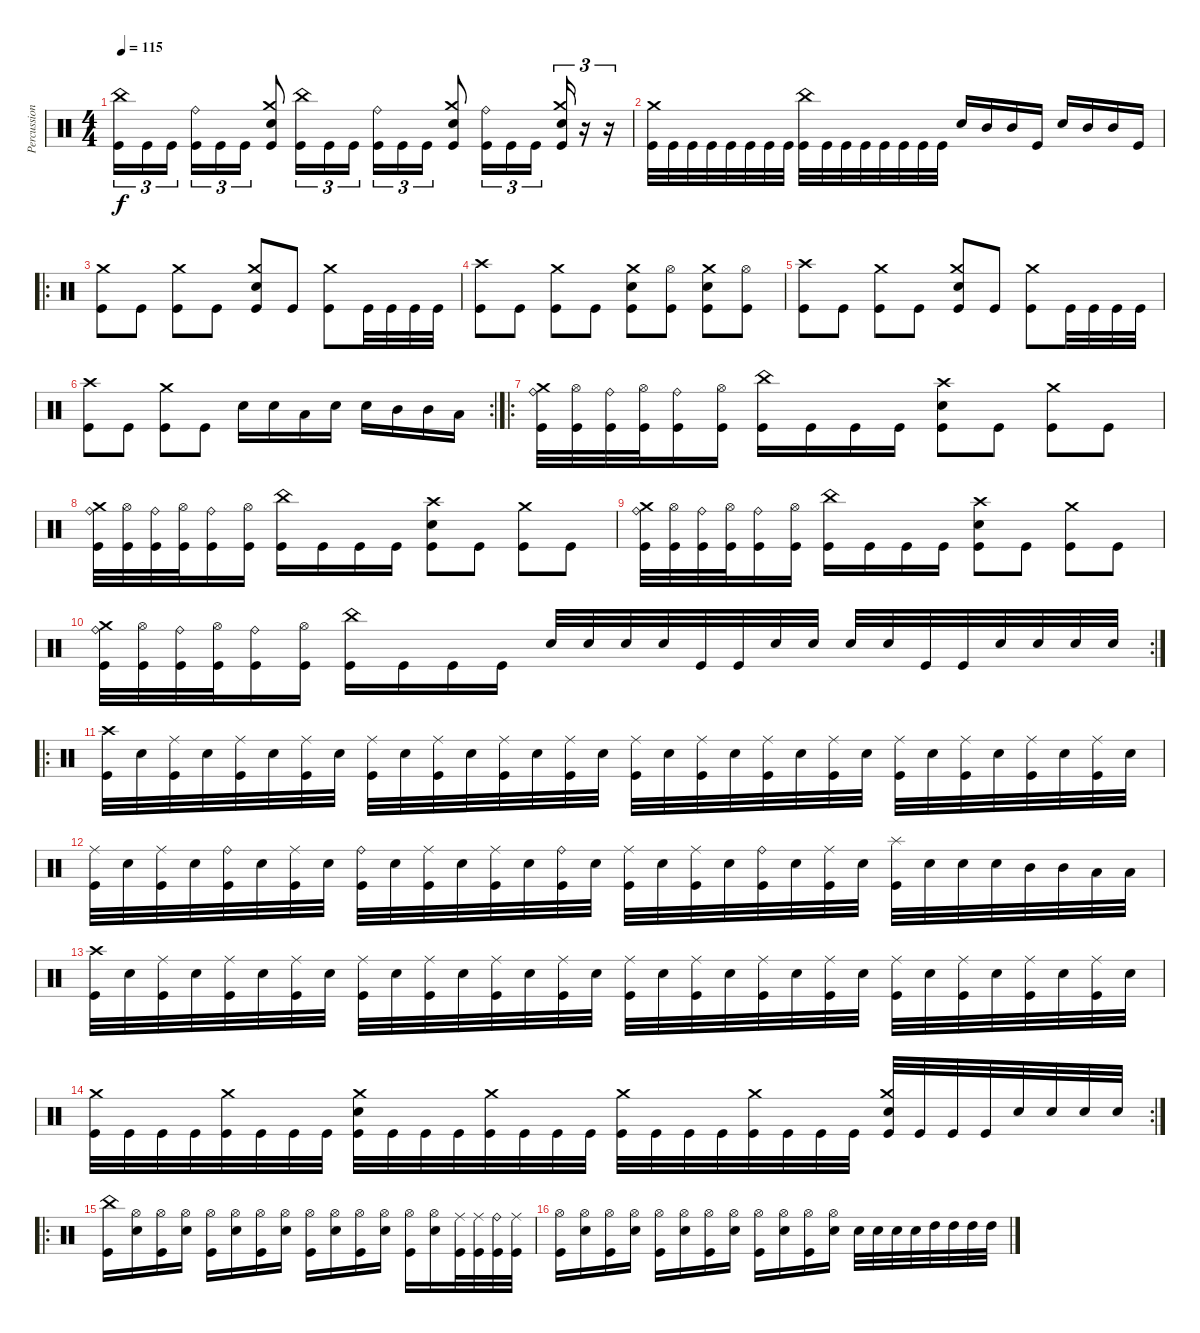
\track ("Percussion" "Percussion") {instrument percussion}
\staff {score}
\articulation defaults
\ts (4 4)
\tempo 115
\clef neutral
\ks c
("China (hit)" "Kick (hit)").16{tu (3 2) dy f} "Kick (hit)".16{tu (3 2)} "Kick (hit)".16{tu (3 2) beam splitsecondary} ("Ride (bell)" "Kick (hit)").16{tu (3 2)} "Kick (hit)".16{tu (3 2)} "Kick (hit)".16{tu (3 2)} ("Crash medium (hit)" "Electric Snare (hit)" "Kick (hit)").8 ("China (hit)" "Kick (hit)").16{tu (3 2)} "Kick (hit)".16{tu (3 2)} "Kick (hit)".16{tu (3 2)} ("Ride (bell)" "Kick (hit)").16{tu (3 2)} "Kick (hit)".16{tu (3 2)} "Kick (hit)".16{tu (3 2)} ("Crash medium (hit)" "Electric Snare (hit)" "Kick (hit)").8 ("Ride (bell)" "Kick (hit)").16{tu (3 2)} "Kick (hit)".16{tu (3 2)} "Kick (hit)".16{tu (3 2) beam splitsecondary} ("Crash medium (hit)" "Electric Snare (hit)" "Kick (hit)").16{tu (3 2)} r.16{tu (3 2)} r.16{tu (3 2)} |
("Crash medium (hit)" "Kick (hit)").32 "Kick (hit)".32 "Kick (hit)".32 "Kick (hit)".32 "Kick (hit)".32 "Kick (hit)".32 "Kick (hit)".32 "Kick (hit)".32 ("China (hit)" "Kick (hit)").32 "Kick (hit)".32 "Kick (hit)".32 "Kick (hit)".32 "Kick (hit)".32 "Kick (hit)".32 "Kick (hit)".32 "Kick (hit)".32 "Electric Snare (hit)".16 "Mid Tom (hit)".16 "Mid Tom (hit)".16 "Kick (hit)".16 "Electric Snare (hit)".16 "Mid Tom (hit)".16 "Mid Tom (hit)".16 "Kick (hit)".16 |
\ro
("Crash medium (hit)" "Kick (hit)").8 "Kick (hit)".8 ("Crash medium (hit)" "Kick (hit)").8 "Kick (hit)".8 ("Crash medium (hit)" "Electric Snare (hit)" "Kick (hit)").8 "Kick (hit)".8 ("Crash medium (hit)" "Kick (hit)").8 "Kick (hit)".32 "Kick (hit)".32 "Kick (hit)".32 "Kick (hit)".32 |
("Crash high (hit)" "Kick (hit)").8 "Kick (hit)".8 ("Crash medium (hit)" "Kick (hit)").8 "Kick (hit)".8 ("Crash medium (hit)" "Electric Snare (hit)" "Kick (hit)").8 ("Hi-Hat (open)" "Kick (hit)").8 ("Crash medium (hit)" "Electric Snare (hit)" "Kick (hit)").8 ("Hi-Hat (open)" "Kick (hit)").8 |
("Crash high (hit)" "Kick (hit)").8 "Kick (hit)".8 ("Crash medium (hit)" "Kick (hit)").8 "Kick (hit)".8 ("Crash medium (hit)" "Electric Snare (hit)" "Kick (hit)").8 "Kick (hit)".8 ("Crash medium (hit)" "Kick (hit)").8 "Kick (hit)".32 "Kick (hit)".32 "Kick (hit)".32 "Kick (hit)".32 |
\rc 2
("Crash high (hit)" "Kick (hit)").8 "Kick (hit)".8 ("Crash medium (hit)" "Kick (hit)").8 "Kick (hit)".8 "Electric Snare (hit)".16 "Electric Snare (hit)".16 "Low Tom (hit)".16 "Electric Snare (hit)".16 "Electric Snare (hit)".16 "Mid Tom (hit)".16 "Mid Tom (hit)".16 "Low Tom (hit)".16 |
\ro
("Crash medium (hit)" "Ride (bell)" "Kick (hit)").32 ("Hi-Hat (open)" "Kick (hit)").32 ("Ride (bell)" "Kick (hit)").32 ("Hi-Hat (open)" "Kick (hit)").32 ("Ride (bell)" "Kick (hit)").16 ("Hi-Hat (open)" "Kick (hit)").16 ("China (hit)" "Kick (hit)").16 "Kick (hit)".16 "Kick (hit)".16 "Kick (hit)".16 ("Crash high (hit)" "Electric Snare (hit)" "Kick (hit)").8 "Kick (hit)".8 ("Crash medium (hit)" "Kick (hit)").8 "Kick (hit)".8 |
("Crash medium (hit)" "Ride (bell)" "Kick (hit)").32 ("Hi-Hat (open)" "Kick (hit)").32 ("Ride (bell)" "Kick (hit)").32 ("Hi-Hat (open)" "Kick (hit)").32 ("Ride (bell)" "Kick (hit)").16 ("Hi-Hat (open)" "Kick (hit)").16 ("China (hit)" "Kick (hit)").16 "Kick (hit)".16 "Kick (hit)".16 "Kick (hit)".16 ("Crash high (hit)" "Electric Snare (hit)" "Kick (hit)").8 "Kick (hit)".8 ("Crash medium (hit)" "Kick (hit)").8 "Kick (hit)".8 |
("Crash medium (hit)" "Ride (bell)" "Kick (hit)").32 ("Hi-Hat (open)" "Kick (hit)").32 ("Ride (bell)" "Kick (hit)").32 ("Hi-Hat (open)" "Kick (hit)").32 ("Ride (bell)" "Kick (hit)").16 ("Hi-Hat (open)" "Kick (hit)").16 ("China (hit)" "Kick (hit)").16 "Kick (hit)".16 "Kick (hit)".16 "Kick (hit)".16 ("Crash high (hit)" "Electric Snare (hit)" "Kick (hit)").8 "Kick (hit)".8 ("Crash medium (hit)" "Kick (hit)").8 "Kick (hit)".8 |
\rc 2
("Crash medium (hit)" "Ride (bell)" "Kick (hit)").32 ("Hi-Hat (open)" "Kick (hit)").32 ("Ride (bell)" "Kick (hit)").32 ("Hi-Hat (open)" "Kick (hit)").32 ("Ride (bell)" "Kick (hit)").16 ("Hi-Hat (open)" "Kick (hit)").16 ("China (hit)" "Kick (hit)").16 "Kick (hit)".16 "Kick (hit)".16 "Kick (hit)".16 "Electric Snare (hit)".32 "Electric Snare (hit)".32 "Electric Snare (hit)".32 "Electric Snare (hit)".32 "Kick (hit)".32 "Kick (hit)".32 "Electric Snare (hit)".32 "Electric Snare (hit)".32 "Electric Snare (hit)".32 "Electric Snare (hit)".32 "Kick (hit)".32 "Kick (hit)".32 "Electric Snare (hit)".32 "Electric Snare (hit)".32 "Electric Snare (hit)".32 "Electric Snare (hit)".32 |
\ro
("Crash high (hit)" "Kick (hit)").32 "Electric Snare (hit)".32 ("Ride (middle)" "Kick (hit)").32 "Electric Snare (hit)".32 ("Ride (middle)" "Kick (hit)").32 "Electric Snare (hit)".32 ("Ride (middle)" "Kick (hit)").32 "Electric Snare (hit)".32 ("Ride (middle)" "Kick (hit)").32 "Electric Snare (hit)".32 ("Ride (middle)" "Kick (hit)").32 "Electric Snare (hit)".32 ("Ride (middle)" "Kick (hit)").32 "Electric Snare (hit)".32 ("Ride (middle)" "Kick (hit)").32 "Electric Snare (hit)".32 ("Ride (middle)" "Kick (hit)").32 "Electric Snare (hit)".32 ("Ride (middle)" "Kick (hit)").32 "Electric Snare (hit)".32 ("Ride (middle)" "Kick (hit)").32 "Electric Snare (hit)".32 ("Ride (middle)" "Kick (hit)").32 "Electric Snare (hit)".32 ("Ride (middle)" "Kick (hit)").32 "Electric Snare (hit)".32 ("Ride (middle)" "Kick (hit)").32 "Electric Snare (hit)".32 ("Ride (middle)" "Kick (hit)").32 "Electric Snare (hit)".32 ("Ride (middle)" "Kick (hit)").32 "Electric Snare (hit)".32 |
("Ride (middle)" "Kick (hit)").32 "Electric Snare (hit)".32 ("Ride (middle)" "Kick (hit)").32 "Electric Snare (hit)".32 ("Ride (bell)" "Kick (hit)").32 "Electric Snare (hit)".32 ("Ride (middle)" "Kick (hit)").32 "Electric Snare (hit)".32 ("Ride (bell)" "Kick (hit)").32 "Electric Snare (hit)".32 ("Ride (middle)" "Kick (hit)").32 "Electric Snare (hit)".32 ("Ride (middle)" "Kick (hit)").32 "Electric Snare (hit)".32 ("Ride (bell)" "Kick (hit)").32 "Electric Snare (hit)".32 ("Ride (middle)" "Kick (hit)").32 "Electric Snare (hit)".32 ("Ride (middle)" "Kick (hit)").32 "Electric Snare (hit)".32 ("Ride (bell)" "Kick (hit)").32 "Electric Snare (hit)".32 ("Ride (middle)" "Kick (hit)").32 "Electric Snare (hit)".32 ("Splash (hit)" "Kick (hit)").32 "Electric Snare (hit)".32 "Electric Snare (hit)".32 "Electric Snare (hit)".32 "Mid Tom (hit)".32 "Mid Tom (hit)".32 "Low Tom (hit)".32 "Low Tom (hit)".32 |
("Crash high (hit)" "Kick (hit)").32 "Electric Snare (hit)".32 ("Ride (middle)" "Kick (hit)").32 "Electric Snare (hit)".32 ("Ride (middle)" "Kick (hit)").32 "Electric Snare (hit)".32 ("Ride (middle)" "Kick (hit)").32 "Electric Snare (hit)".32 ("Ride (middle)" "Kick (hit)").32 "Electric Snare (hit)".32 ("Ride (middle)" "Kick (hit)").32 "Electric Snare (hit)".32 ("Ride (middle)" "Kick (hit)").32 "Electric Snare (hit)".32 ("Ride (middle)" "Kick (hit)").32 "Electric Snare (hit)".32 ("Ride (middle)" "Kick (hit)").32 "Electric Snare (hit)".32 ("Ride (middle)" "Kick (hit)").32 "Electric Snare (hit)".32 ("Ride (middle)" "Kick (hit)").32 "Electric Snare (hit)".32 ("Ride (middle)" "Kick (hit)").32 "Electric Snare (hit)".32 ("Ride (middle)" "Kick (hit)").32 "Electric Snare (hit)".32 ("Ride (middle)" "Kick (hit)").32 "Electric Snare (hit)".32 ("Ride (middle)" "Kick (hit)").32 "Electric Snare (hit)".32 ("Ride (middle)" "Kick (hit)").32 "Electric Snare (hit)".32 |
\rc 2
("Crash medium (hit)" "Kick (hit)").32 "Kick (hit)".32 "Kick (hit)".32 "Kick (hit)".32 ("Crash medium (hit)" "Kick (hit)").32 "Kick (hit)".32 "Kick (hit)".32 "Kick (hit)".32 ("Electric Snare (hit)" "Crash medium (hit)" "Kick (hit)").32 "Kick (hit)".32 "Kick (hit)".32 "Kick (hit)".32 ("Crash medium (hit)" "Kick (hit)").32 "Kick (hit)".32 "Kick (hit)".32 "Kick (hit)".32 ("Crash medium (hit)" "Kick (hit)").32 "Kick (hit)".32 "Kick (hit)".32 "Kick (hit)".32 ("Crash medium (hit)" "Kick (hit)").32 "Kick (hit)".32 "Kick (hit)".32 "Kick (hit)".32 ("Electric Snare (hit)" "Crash medium (hit)" "Kick (hit)").32 "Kick (hit)".32 "Kick (hit)".32 "Kick (hit)".32 "Electric Snare (hit)".32 "Electric Snare (hit)".32 "Electric Snare (hit)".32 "Electric Snare (hit)".32 |
\ro
("China (hit)" "Kick (hit)").16 ("Hi-Hat (open)" "Electric Snare (hit)").16 ("Hi-Hat (open)" "Kick (hit)").16 ("Hi-Hat (open)" "Electric Snare (hit)").16 ("Hi-Hat (open)" "Kick (hit)").16 ("Hi-Hat (open)" "Electric Snare (hit)").16 ("Hi-Hat (open)" "Kick (hit)").16 ("Hi-Hat (open)" "Electric Snare (hit)").16 ("Hi-Hat (open)" "Kick (hit)").16 ("Hi-Hat (open)" "Electric Snare (hit)").16 ("Hi-Hat (open)" "Kick (hit)").16 ("Hi-Hat (open)" "Electric Snare (hit)").16 ("Hi-Hat (open)" "Kick (hit)").16 ("Hi-Hat (open)" "Electric Snare (hit)").16 ("Ride (middle)" "Kick (hit)").32 ("Ride (middle)" "Kick (hit)").32 ("Ride (bell)" "Kick (hit)").32 ("Ride (middle)" "Kick (hit)").32 |
("Hi-Hat (open)" "Kick (hit)").16 ("Hi-Hat (open)" "Electric Snare (hit)").16 ("Hi-Hat (open)" "Kick (hit)").16 ("Hi-Hat (open)" "Electric Snare (hit)").16 ("Hi-Hat (open)" "Kick (hit)").16 ("Hi-Hat (open)" "Electric Snare (hit)").16 ("Hi-Hat (open)" "Kick (hit)").16 ("Hi-Hat (open)" "Electric Snare (hit)").16 ("Hi-Hat (open)" "Kick (hit)").16 ("Hi-Hat (open)" "Electric Snare (hit)").16 ("Hi-Hat (open)" "Kick (hit)").16 ("Hi-Hat (open)" "Electric Snare (hit)").16 "Electric Snare (hit)".32 "Electric Snare (hit)".32 "Electric Snare (hit)".32 "Electric Snare (hit)".32 "High Tom (hit)".32 "High Tom (hit)".32 "High Tom (hit)".32 "High Tom (hit)".32
